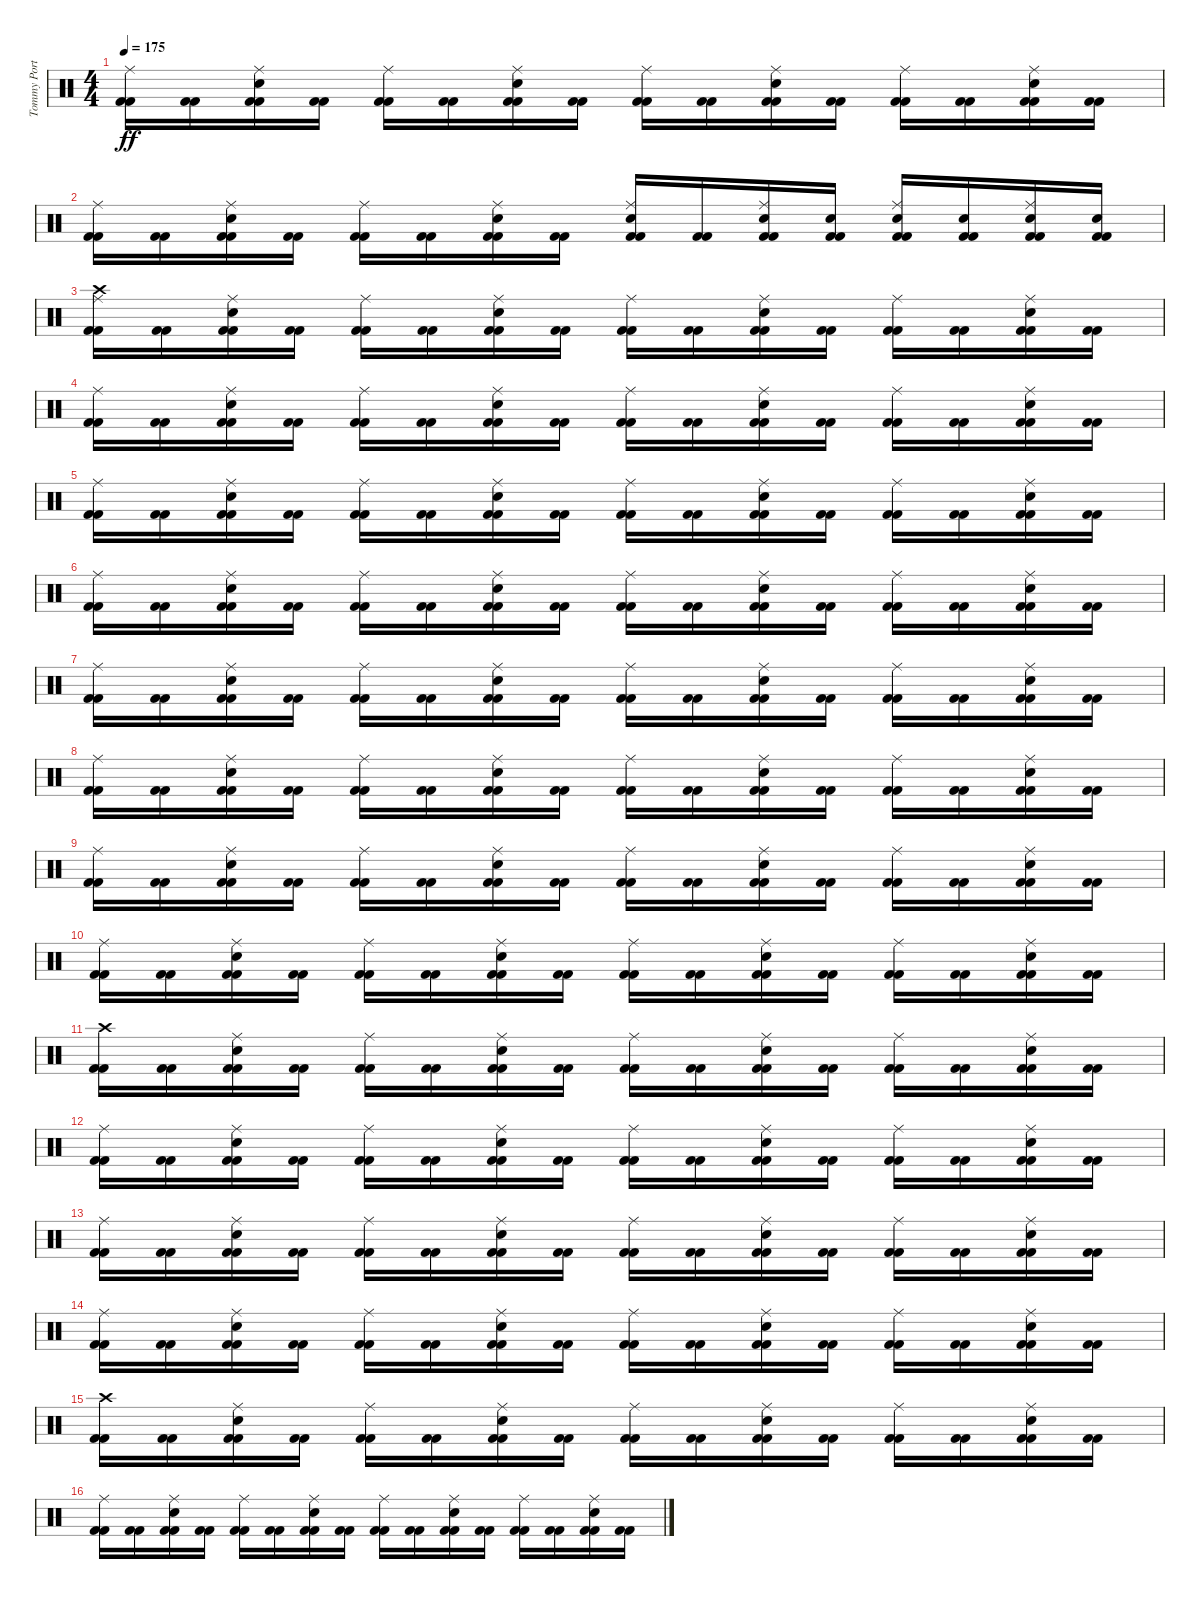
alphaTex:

\track ("Tommy Portimo" "Tommy Port") {instrument percussion}
\staff {score}
\articulation defaults
\ts (4 4)
\tempo 175
\clef neutral
\ks c
("Kick (hit) 2" "Kick (hit) 2" "Ride (middle)").16{dy ff} ("Kick (hit) 2" "Kick (hit) 2").16 ("Kick (hit) 2" "Kick (hit) 2" "Ride (middle)" "Electric Snare (hit)").16 ("Kick (hit) 2" "Kick (hit) 2").16 ("Kick (hit) 2" "Kick (hit) 2" "Ride (middle)").16 ("Kick (hit) 2" "Kick (hit) 2").16 ("Kick (hit) 2" "Kick (hit) 2" "Ride (middle)" "Electric Snare (hit)").16 ("Kick (hit) 2" "Kick (hit) 2").16 ("Kick (hit) 2" "Kick (hit) 2" "Ride (middle)").16 ("Kick (hit) 2" "Kick (hit) 2").16 ("Kick (hit) 2" "Kick (hit) 2" "Ride (middle)" "Electric Snare (hit)").16 ("Kick (hit) 2" "Kick (hit) 2").16 ("Kick (hit) 2" "Kick (hit) 2" "Ride (middle)").16 ("Kick (hit) 2" "Kick (hit) 2").16 ("Kick (hit) 2" "Kick (hit) 2" "Ride (middle)" "Electric Snare (hit)").16 ("Kick (hit) 2" "Kick (hit) 2").16 |
("Kick (hit) 2" "Kick (hit) 2" "Ride (middle)").16 ("Kick (hit) 2" "Kick (hit) 2").16 ("Kick (hit) 2" "Kick (hit) 2" "Ride (middle)" "Electric Snare (hit)").16 ("Kick (hit) 2" "Kick (hit) 2").16 ("Kick (hit) 2" "Kick (hit) 2" "Ride (middle)").16 ("Kick (hit) 2" "Kick (hit) 2").16 ("Kick (hit) 2" "Kick (hit) 2" "Ride (middle)" "Electric Snare (hit)").16 ("Kick (hit) 2" "Kick (hit) 2").16 ("Kick (hit) 2" "Kick (hit) 2" "Ride (middle)" "Electric Snare (hit)").16 ("Kick (hit) 2" "Kick (hit) 2").16 ("Kick (hit) 2" "Kick (hit) 2" "Ride (middle)" "Electric Snare (hit)").16 ("Kick (hit) 2" "Kick (hit) 2" "Electric Snare (hit)").16 ("Kick (hit) 2" "Kick (hit) 2" "Ride (middle)" "Electric Snare (hit)").16 ("Kick (hit) 2" "Kick (hit) 2" "Electric Snare (hit)").16 ("Kick (hit) 2" "Kick (hit) 2" "Ride (middle)" "Electric Snare (hit)").16 ("Kick (hit) 2" "Kick (hit) 2" "Electric Snare (hit)").16 |
("Kick (hit) 2" "Kick (hit) 2" "Ride (middle)" "Crash high (hit)").16 ("Kick (hit) 2" "Kick (hit) 2").16 ("Kick (hit) 2" "Kick (hit) 2" "Ride (middle)" "Electric Snare (hit)").16 ("Kick (hit) 2" "Kick (hit) 2").16 ("Kick (hit) 2" "Kick (hit) 2" "Ride (middle)").16 ("Kick (hit) 2" "Kick (hit) 2").16 ("Kick (hit) 2" "Kick (hit) 2" "Ride (middle)" "Electric Snare (hit)").16 ("Kick (hit) 2" "Kick (hit) 2").16 ("Kick (hit) 2" "Kick (hit) 2" "Ride (middle)").16 ("Kick (hit) 2" "Kick (hit) 2").16 ("Kick (hit) 2" "Kick (hit) 2" "Ride (middle)" "Electric Snare (hit)").16 ("Kick (hit) 2" "Kick (hit) 2").16 ("Kick (hit) 2" "Kick (hit) 2" "Ride (middle)").16 ("Kick (hit) 2" "Kick (hit) 2").16 ("Kick (hit) 2" "Kick (hit) 2" "Ride (middle)" "Electric Snare (hit)").16 ("Kick (hit) 2" "Kick (hit) 2").16 |
("Kick (hit) 2" "Kick (hit) 2" "Ride (middle)").16 ("Kick (hit) 2" "Kick (hit) 2").16 ("Kick (hit) 2" "Kick (hit) 2" "Ride (middle)" "Electric Snare (hit)").16 ("Kick (hit) 2" "Kick (hit) 2").16 ("Kick (hit) 2" "Kick (hit) 2" "Ride (middle)").16 ("Kick (hit) 2" "Kick (hit) 2").16 ("Kick (hit) 2" "Kick (hit) 2" "Ride (middle)" "Electric Snare (hit)").16 ("Kick (hit) 2" "Kick (hit) 2").16 ("Kick (hit) 2" "Kick (hit) 2" "Ride (middle)").16 ("Kick (hit) 2" "Kick (hit) 2").16 ("Kick (hit) 2" "Kick (hit) 2" "Ride (middle)" "Electric Snare (hit)").16 ("Kick (hit) 2" "Kick (hit) 2").16 ("Kick (hit) 2" "Kick (hit) 2" "Ride (middle)").16 ("Kick (hit) 2" "Kick (hit) 2").16 ("Kick (hit) 2" "Kick (hit) 2" "Ride (middle)" "Electric Snare (hit)").16 ("Kick (hit) 2" "Kick (hit) 2").16 |
("Kick (hit) 2" "Kick (hit) 2" "Ride (middle)").16 ("Kick (hit) 2" "Kick (hit) 2").16 ("Kick (hit) 2" "Kick (hit) 2" "Ride (middle)" "Electric Snare (hit)").16 ("Kick (hit) 2" "Kick (hit) 2").16 ("Kick (hit) 2" "Kick (hit) 2" "Ride (middle)").16 ("Kick (hit) 2" "Kick (hit) 2").16 ("Kick (hit) 2" "Kick (hit) 2" "Ride (middle)" "Electric Snare (hit)").16 ("Kick (hit) 2" "Kick (hit) 2").16 ("Kick (hit) 2" "Kick (hit) 2" "Ride (middle)").16 ("Kick (hit) 2" "Kick (hit) 2").16 ("Kick (hit) 2" "Kick (hit) 2" "Ride (middle)" "Electric Snare (hit)").16 ("Kick (hit) 2" "Kick (hit) 2").16 ("Kick (hit) 2" "Kick (hit) 2" "Ride (middle)").16 ("Kick (hit) 2" "Kick (hit) 2").16 ("Kick (hit) 2" "Kick (hit) 2" "Ride (middle)" "Electric Snare (hit)").16 ("Kick (hit) 2" "Kick (hit) 2").16 |
("Kick (hit) 2" "Kick (hit) 2" "Ride (middle)").16 ("Kick (hit) 2" "Kick (hit) 2").16 ("Kick (hit) 2" "Kick (hit) 2" "Ride (middle)" "Electric Snare (hit)").16 ("Kick (hit) 2" "Kick (hit) 2").16 ("Kick (hit) 2" "Kick (hit) 2" "Ride (middle)").16 ("Kick (hit) 2" "Kick (hit) 2").16 ("Kick (hit) 2" "Kick (hit) 2" "Ride (middle)" "Electric Snare (hit)").16 ("Kick (hit) 2" "Kick (hit) 2").16 ("Kick (hit) 2" "Kick (hit) 2" "Ride (middle)").16 ("Kick (hit) 2" "Kick (hit) 2").16 ("Kick (hit) 2" "Kick (hit) 2" "Ride (middle)" "Electric Snare (hit)").16 ("Kick (hit) 2" "Kick (hit) 2").16 ("Kick (hit) 2" "Kick (hit) 2" "Ride (middle)").16 ("Kick (hit) 2" "Kick (hit) 2").16 ("Kick (hit) 2" "Kick (hit) 2" "Ride (middle)" "Electric Snare (hit)").16 ("Kick (hit) 2" "Kick (hit) 2").16 |
("Kick (hit) 2" "Kick (hit) 2" "Ride (middle)").16 ("Kick (hit) 2" "Kick (hit) 2").16 ("Kick (hit) 2" "Kick (hit) 2" "Ride (middle)" "Electric Snare (hit)").16 ("Kick (hit) 2" "Kick (hit) 2").16 ("Kick (hit) 2" "Kick (hit) 2" "Ride (middle)").16 ("Kick (hit) 2" "Kick (hit) 2").16 ("Kick (hit) 2" "Kick (hit) 2" "Ride (middle)" "Electric Snare (hit)").16 ("Kick (hit) 2" "Kick (hit) 2").16 ("Kick (hit) 2" "Kick (hit) 2" "Ride (middle)").16 ("Kick (hit) 2" "Kick (hit) 2").16 ("Kick (hit) 2" "Kick (hit) 2" "Ride (middle)" "Electric Snare (hit)").16 ("Kick (hit) 2" "Kick (hit) 2").16 ("Kick (hit) 2" "Kick (hit) 2" "Ride (middle)").16 ("Kick (hit) 2" "Kick (hit) 2").16 ("Kick (hit) 2" "Kick (hit) 2" "Ride (middle)" "Electric Snare (hit)").16 ("Kick (hit) 2" "Kick (hit) 2").16 |
("Kick (hit) 2" "Kick (hit) 2" "Ride (middle)").16 ("Kick (hit) 2" "Kick (hit) 2").16 ("Kick (hit) 2" "Kick (hit) 2" "Ride (middle)" "Electric Snare (hit)").16 ("Kick (hit) 2" "Kick (hit) 2").16 ("Kick (hit) 2" "Kick (hit) 2" "Ride (middle)").16 ("Kick (hit) 2" "Kick (hit) 2").16 ("Kick (hit) 2" "Kick (hit) 2" "Ride (middle)" "Electric Snare (hit)").16 ("Kick (hit) 2" "Kick (hit) 2").16 ("Kick (hit) 2" "Kick (hit) 2" "Ride (middle)").16 ("Kick (hit) 2" "Kick (hit) 2").16 ("Kick (hit) 2" "Kick (hit) 2" "Ride (middle)" "Electric Snare (hit)").16 ("Kick (hit) 2" "Kick (hit) 2").16 ("Kick (hit) 2" "Kick (hit) 2" "Ride (middle)").16 ("Kick (hit) 2" "Kick (hit) 2").16 ("Kick (hit) 2" "Kick (hit) 2" "Ride (middle)" "Electric Snare (hit)").16 ("Kick (hit) 2" "Kick (hit) 2").16 |
("Kick (hit) 2" "Kick (hit) 2" "Ride (middle)").16 ("Kick (hit) 2" "Kick (hit) 2").16 ("Kick (hit) 2" "Kick (hit) 2" "Ride (middle)" "Electric Snare (hit)").16 ("Kick (hit) 2" "Kick (hit) 2").16 ("Kick (hit) 2" "Kick (hit) 2" "Ride (middle)").16 ("Kick (hit) 2" "Kick (hit) 2").16 ("Kick (hit) 2" "Kick (hit) 2" "Ride (middle)" "Electric Snare (hit)").16 ("Kick (hit) 2" "Kick (hit) 2").16 ("Kick (hit) 2" "Kick (hit) 2" "Ride (middle)").16 ("Kick (hit) 2" "Kick (hit) 2").16 ("Kick (hit) 2" "Kick (hit) 2" "Ride (middle)" "Electric Snare (hit)").16 ("Kick (hit) 2" "Kick (hit) 2").16 ("Kick (hit) 2" "Kick (hit) 2" "Ride (middle)").16 ("Kick (hit) 2" "Kick (hit) 2").16 ("Kick (hit) 2" "Kick (hit) 2" "Ride (middle)" "Electric Snare (hit)").16 ("Kick (hit) 2" "Kick (hit) 2").16 |
("Kick (hit) 2" "Kick (hit) 2" "Ride (middle)").16 ("Kick (hit) 2" "Kick (hit) 2").16 ("Kick (hit) 2" "Kick (hit) 2" "Ride (middle)" "Electric Snare (hit)").16 ("Kick (hit) 2" "Kick (hit) 2").16 ("Kick (hit) 2" "Kick (hit) 2" "Ride (middle)").16 ("Kick (hit) 2" "Kick (hit) 2").16 ("Kick (hit) 2" "Kick (hit) 2" "Ride (middle)" "Electric Snare (hit)").16 ("Kick (hit) 2" "Kick (hit) 2").16 ("Kick (hit) 2" "Kick (hit) 2" "Ride (middle)").16 ("Kick (hit) 2" "Kick (hit) 2").16 ("Kick (hit) 2" "Kick (hit) 2" "Ride (middle)" "Electric Snare (hit)").16 ("Kick (hit) 2" "Kick (hit) 2").16 ("Kick (hit) 2" "Kick (hit) 2" "Ride (middle)").16 ("Kick (hit) 2" "Kick (hit) 2").16 ("Kick (hit) 2" "Kick (hit) 2" "Ride (middle)" "Electric Snare (hit)").16 ("Kick (hit) 2" "Kick (hit) 2").16 |
("Kick (hit) 2" "Kick (hit) 2" "Crash high (hit)").16 ("Kick (hit) 2" "Kick (hit) 2").16 ("Kick (hit) 2" "Kick (hit) 2" "Ride (middle)" "Electric Snare (hit)").16 ("Kick (hit) 2" "Kick (hit) 2").16 ("Kick (hit) 2" "Kick (hit) 2" "Ride (middle)").16 ("Kick (hit) 2" "Kick (hit) 2").16 ("Kick (hit) 2" "Kick (hit) 2" "Ride (middle)" "Electric Snare (hit)").16 ("Kick (hit) 2" "Kick (hit) 2").16 ("Kick (hit) 2" "Kick (hit) 2" "Ride (middle)").16 ("Kick (hit) 2" "Kick (hit) 2").16 ("Kick (hit) 2" "Kick (hit) 2" "Ride (middle)" "Electric Snare (hit)").16 ("Kick (hit) 2" "Kick (hit) 2").16 ("Kick (hit) 2" "Kick (hit) 2" "Ride (middle)").16 ("Kick (hit) 2" "Kick (hit) 2").16 ("Kick (hit) 2" "Kick (hit) 2" "Ride (middle)" "Electric Snare (hit)").16 ("Kick (hit) 2" "Kick (hit) 2").16 |
("Kick (hit) 2" "Kick (hit) 2" "Ride (middle)").16 ("Kick (hit) 2" "Kick (hit) 2").16 ("Kick (hit) 2" "Kick (hit) 2" "Ride (middle)" "Electric Snare (hit)").16 ("Kick (hit) 2" "Kick (hit) 2").16 ("Kick (hit) 2" "Kick (hit) 2" "Ride (middle)").16 ("Kick (hit) 2" "Kick (hit) 2").16 ("Kick (hit) 2" "Kick (hit) 2" "Ride (middle)" "Electric Snare (hit)").16 ("Kick (hit) 2" "Kick (hit) 2").16 ("Kick (hit) 2" "Kick (hit) 2" "Ride (middle)").16 ("Kick (hit) 2" "Kick (hit) 2").16 ("Kick (hit) 2" "Kick (hit) 2" "Ride (middle)" "Electric Snare (hit)").16 ("Kick (hit) 2" "Kick (hit) 2").16 ("Kick (hit) 2" "Kick (hit) 2" "Ride (middle)").16 ("Kick (hit) 2" "Kick (hit) 2").16 ("Kick (hit) 2" "Kick (hit) 2" "Ride (middle)" "Electric Snare (hit)").16 ("Kick (hit) 2" "Kick (hit) 2").16 |
("Kick (hit) 2" "Kick (hit) 2" "Ride (middle)").16 ("Kick (hit) 2" "Kick (hit) 2").16 ("Kick (hit) 2" "Kick (hit) 2" "Ride (middle)" "Electric Snare (hit)").16 ("Kick (hit) 2" "Kick (hit) 2").16 ("Kick (hit) 2" "Kick (hit) 2" "Ride (middle)").16 ("Kick (hit) 2" "Kick (hit) 2").16 ("Kick (hit) 2" "Kick (hit) 2" "Ride (middle)" "Electric Snare (hit)").16 ("Kick (hit) 2" "Kick (hit) 2").16 ("Kick (hit) 2" "Kick (hit) 2" "Ride (middle)").16 ("Kick (hit) 2" "Kick (hit) 2").16 ("Kick (hit) 2" "Kick (hit) 2" "Ride (middle)" "Electric Snare (hit)").16 ("Kick (hit) 2" "Kick (hit) 2").16 ("Kick (hit) 2" "Kick (hit) 2" "Ride (middle)").16 ("Kick (hit) 2" "Kick (hit) 2").16 ("Kick (hit) 2" "Kick (hit) 2" "Ride (middle)" "Electric Snare (hit)").16 ("Kick (hit) 2" "Kick (hit) 2").16 |
("Kick (hit) 2" "Kick (hit) 2" "Ride (middle)").16 ("Kick (hit) 2" "Kick (hit) 2").16 ("Kick (hit) 2" "Kick (hit) 2" "Ride (middle)" "Electric Snare (hit)").16 ("Kick (hit) 2" "Kick (hit) 2").16 ("Kick (hit) 2" "Kick (hit) 2" "Ride (middle)").16 ("Kick (hit) 2" "Kick (hit) 2").16 ("Kick (hit) 2" "Kick (hit) 2" "Ride (middle)" "Electric Snare (hit)").16 ("Kick (hit) 2" "Kick (hit) 2").16 ("Kick (hit) 2" "Kick (hit) 2" "Ride (middle)").16 ("Kick (hit) 2" "Kick (hit) 2").16 ("Kick (hit) 2" "Kick (hit) 2" "Ride (middle)" "Electric Snare (hit)").16 ("Kick (hit) 2" "Kick (hit) 2").16 ("Kick (hit) 2" "Kick (hit) 2" "Ride (middle)").16 ("Kick (hit) 2" "Kick (hit) 2").16 ("Kick (hit) 2" "Kick (hit) 2" "Ride (middle)" "Electric Snare (hit)").16 ("Kick (hit) 2" "Kick (hit) 2").16 |
("Kick (hit) 2" "Kick (hit) 2" "Crash high (hit)").16 ("Kick (hit) 2" "Kick (hit) 2").16 ("Kick (hit) 2" "Kick (hit) 2" "Ride (middle)" "Electric Snare (hit)").16 ("Kick (hit) 2" "Kick (hit) 2").16 ("Kick (hit) 2" "Kick (hit) 2" "Ride (middle)").16 ("Kick (hit) 2" "Kick (hit) 2").16 ("Kick (hit) 2" "Kick (hit) 2" "Ride (middle)" "Electric Snare (hit)").16 ("Kick (hit) 2" "Kick (hit) 2").16 ("Kick (hit) 2" "Kick (hit) 2" "Ride (middle)").16 ("Kick (hit) 2" "Kick (hit) 2").16 ("Kick (hit) 2" "Kick (hit) 2" "Ride (middle)" "Electric Snare (hit)").16 ("Kick (hit) 2" "Kick (hit) 2").16 ("Kick (hit) 2" "Kick (hit) 2" "Ride (middle)").16 ("Kick (hit) 2" "Kick (hit) 2").16 ("Kick (hit) 2" "Kick (hit) 2" "Ride (middle)" "Electric Snare (hit)").16 ("Kick (hit) 2" "Kick (hit) 2").16 |
("Kick (hit) 2" "Kick (hit) 2" "Ride (middle)").16 ("Kick (hit) 2" "Kick (hit) 2").16 ("Kick (hit) 2" "Kick (hit) 2" "Ride (middle)" "Electric Snare (hit)").16 ("Kick (hit) 2" "Kick (hit) 2").16 ("Kick (hit) 2" "Kick (hit) 2" "Ride (middle)").16 ("Kick (hit) 2" "Kick (hit) 2").16 ("Kick (hit) 2" "Kick (hit) 2" "Ride (middle)" "Electric Snare (hit)").16 ("Kick (hit) 2" "Kick (hit) 2").16 ("Kick (hit) 2" "Kick (hit) 2" "Ride (middle)").16 ("Kick (hit) 2" "Kick (hit) 2").16 ("Kick (hit) 2" "Kick (hit) 2" "Ride (middle)" "Electric Snare (hit)").16 ("Kick (hit) 2" "Kick (hit) 2").16 ("Kick (hit) 2" "Kick (hit) 2" "Ride (middle)").16 ("Kick (hit) 2" "Kick (hit) 2").16 ("Kick (hit) 2" "Kick (hit) 2" "Ride (middle)" "Electric Snare (hit)").16 ("Kick (hit) 2" "Kick (hit) 2").16
